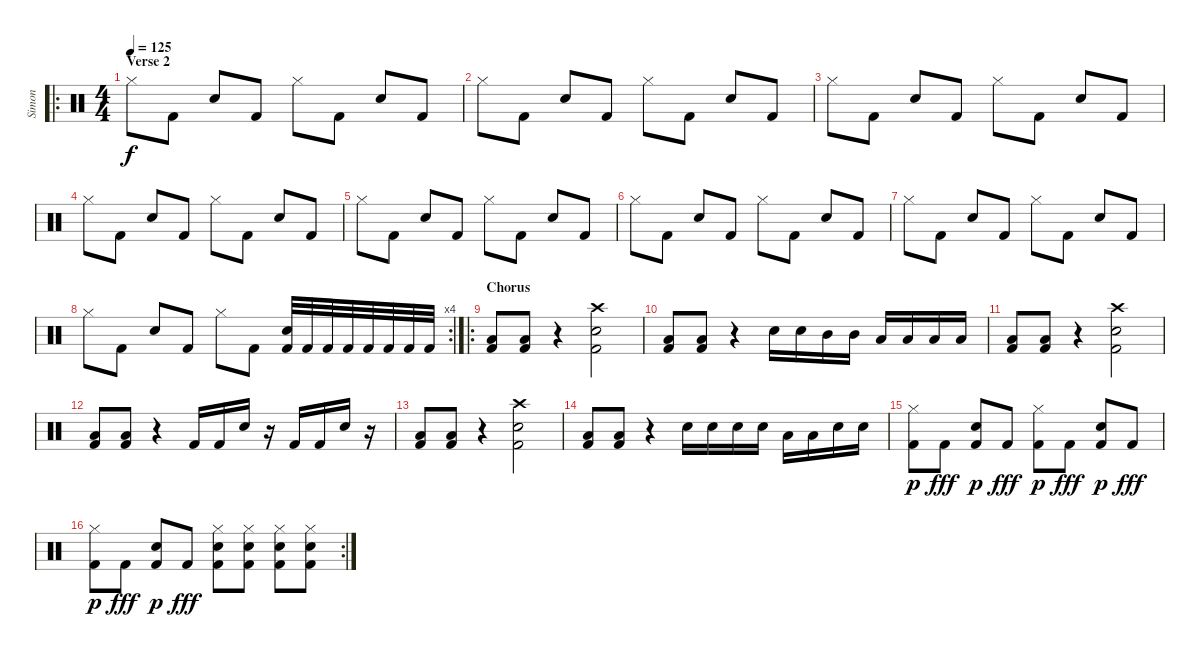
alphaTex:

\track ("Simon" "Simon") {instrument percussion}
\staff {score}
\articulation defaults
\ro
\ts (4 4)
\section ("" "Verse 2")
\tempo 125
\clef neutral
\ks c "Hi-Hat (closed)".8{dy f} "Kick (hit) 2".8 "Snare (hit) 2".8 "Kick (hit) 2".8 "Hi-Hat (closed)".8 "Kick (hit) 2".8 "Snare (hit) 2".8 "Kick (hit) 2".8
|
"Hi-Hat (closed)".8 "Kick (hit) 2".8 "Snare (hit) 2".8 "Kick (hit) 2".8 "Hi-Hat (closed)".8 "Kick (hit) 2".8 "Snare (hit) 2".8 "Kick (hit) 2".8 |
"Hi-Hat (closed)".8 "Kick (hit) 2".8 "Snare (hit) 2".8 "Kick (hit) 2".8 "Hi-Hat (closed)".8 "Kick (hit) 2".8 "Snare (hit) 2".8 "Kick (hit) 2".8 |
"Hi-Hat (closed)".8 "Kick (hit) 2".8 "Snare (hit) 2".8 "Kick (hit) 2".8 "Hi-Hat (closed)".8 "Kick (hit) 2".8 "Snare (hit) 2".8 "Kick (hit) 2".8 |
"Hi-Hat (closed)".8 "Kick (hit) 2".8 "Snare (hit) 2".8 "Kick (hit) 2".8 "Hi-Hat (closed)".8 "Kick (hit) 2".8 "Snare (hit) 2".8 "Kick (hit) 2".8 |
"Hi-Hat (closed)".8 "Kick (hit) 2".8 "Snare (hit) 2".8 "Kick (hit) 2".8 "Hi-Hat (closed)".8 "Kick (hit) 2".8 "Snare (hit) 2".8 "Kick (hit) 2".8 |
"Hi-Hat (closed)".8 "Kick (hit) 2".8 "Snare (hit) 2".8 "Kick (hit) 2".8 "Hi-Hat (closed)".8 "Kick (hit) 2".8 "Snare (hit) 2".8 "Kick (hit) 2".8 |
\rc 4 "Hi-Hat (closed)".8 "Kick (hit) 2".8 "Snare (hit) 2".8 "Kick (hit) 2".8 "Hi-Hat (closed)".8 "Kick (hit) 2".8
("Snare (hit) 2" "Kick (hit) 2").32 "Kick (hit) 2".32 "Kick (hit) 2".32 "Kick (hit) 2".32 "Kick (hit) 2".32 "Kick (hit) 2".32 "Kick (hit) 2".32 "Kick (hit) 2".32 |
\ro
\section ("" "Chorus")
("Low Floor Tom (hit)" "Kick (hit) 2").8 ("Low Floor Tom (hit)" "Kick (hit) 2").8 r.4 ("Crash high (hit)" "Snare (hit) 2" "Kick (hit) 2").2 |
("Low Floor Tom (hit)" "Kick (hit) 2").8 ("Low Floor Tom (hit)" "Kick (hit) 2").8 r.4 "Snare (hit) 2".16 "Snare (hit) 2".16 "Mid Tom (hit)".16 "Mid Tom (hit)".16 "Low Tom (hit)".16 "Low Tom (hit)".16 "Low Floor Tom (hit)".16 "Low Floor Tom (hit)".16 |
("Low Floor Tom (hit)" "Kick (hit) 2").8 ("Low Floor Tom (hit)" "Kick (hit) 2").8 r.4 ("Crash high (hit)" "Snare (hit) 2" "Kick (hit) 2").2 |
("Low Floor Tom (hit)" "Kick (hit) 2").8 ("Low Floor Tom (hit)" "Kick (hit) 2").8 r.4 "Kick (hit) 2".16 "Kick (hit) 2".16 "Snare (hit) 2".16 r.16 "Kick (hit) 2".16 "Kick (hit) 2".16 "Snare (hit) 2".16 r.16 |
("Low Floor Tom (hit)" "Kick (hit) 2").8 ("Low Floor Tom (hit)" "Kick (hit) 2").8 r.4 ("Crash high (hit)" "Snare (hit) 2" "Kick (hit) 2").2 |
("Low Floor Tom (hit)" "Kick (hit) 2").8 ("Low Floor Tom (hit)" "Kick (hit) 2").8 r.4 "Snare (hit) 2".16 "Snare (hit) 2".16 "Snare (hit) 2".16 "Snare (hit) 2".16 "Low Floor Tom (hit)".16 "Low Floor Tom (hit)".16 "Snare (hit) 2".16 "Snare (hit) 2".16 |
("Hi-Hat (closed)" "Kick (hit) 2").8{dy p} "Kick (hit) 2".8{dy fff} ("Snare (hit) 2" "Kick (hit) 2").8{dy p} "Kick (hit) 2".8{dy fff} ("Hi-Hat (closed)" "Kick (hit) 2").8{dy p} "Kick (hit) 2".8{dy fff} ("Snare (hit) 2" "Kick (hit) 2").8{dy p} "Kick (hit) 2".8{dy fff} |
\rc 2
("Hi-Hat (closed)" "Kick (hit) 2").8{dy p} "Kick (hit) 2".8{dy fff} ("Snare (hit) 2" "Kick (hit) 2").8{dy p} "Kick (hit) 2".8{dy fff} ("Hi-Hat (closed)" "Snare (hit) 2" "Kick (hit) 2").8 ("Hi-Hat (closed)" "Snare (hit) 2" "Kick (hit) 2").8 ("Hi-Hat (closed)" "Snare (hit) 2" "Kick (hit) 2").8 ("Hi-Hat (closed)" "Snare (hit) 2" "Kick (hit) 2").8
